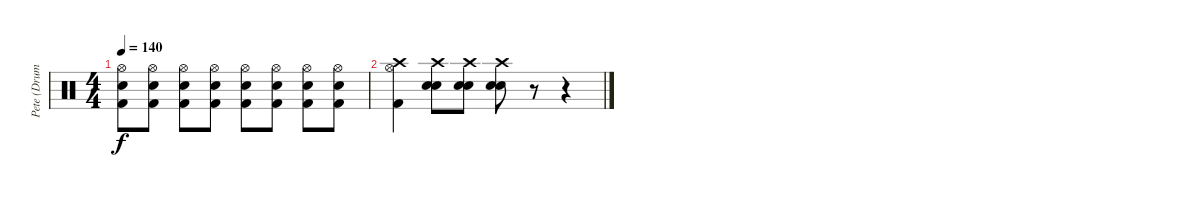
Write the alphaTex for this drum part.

\track ("Pete (Drums)" "Pete (Drum") {instrument percussion}
\staff {score}
\articulation defaults
\ts (4 4)
\tempo 140
\clef neutral
\ks c
("Snare (hit) 2" "Kick (hit) 2" "Hi-Hat (open)").8{dy f} ("Snare (hit) 2" "Kick (hit) 2" "Hi-Hat (open)").8 ("Snare (hit) 2" "Kick (hit) 2" "Hi-Hat (open)").8 ("Snare (hit) 2" "Kick (hit) 2" "Hi-Hat (open)").8 ("Snare (hit) 2" "Kick (hit) 2" "Hi-Hat (open)").8 ("Snare (hit) 2" "Kick (hit) 2" "Hi-Hat (open)").8 ("Snare (hit) 2" "Kick (hit) 2" "Hi-Hat (open)").8 ("Snare (hit) 2" "Kick (hit) 2" "Hi-Hat (open)").8 |
("Hi-Hat (open)" "Crash high (hit)" "Kick (hit) 2").4 ("Snare (hit) 2" "Snare (hit) 2" "Crash high (hit)").8 ("Snare (hit) 2" "Snare (hit) 2" "Crash high (hit)").8 ("Snare (hit) 2" "Snare (hit) 2" "Crash high (hit)").8 r.8 r.4
